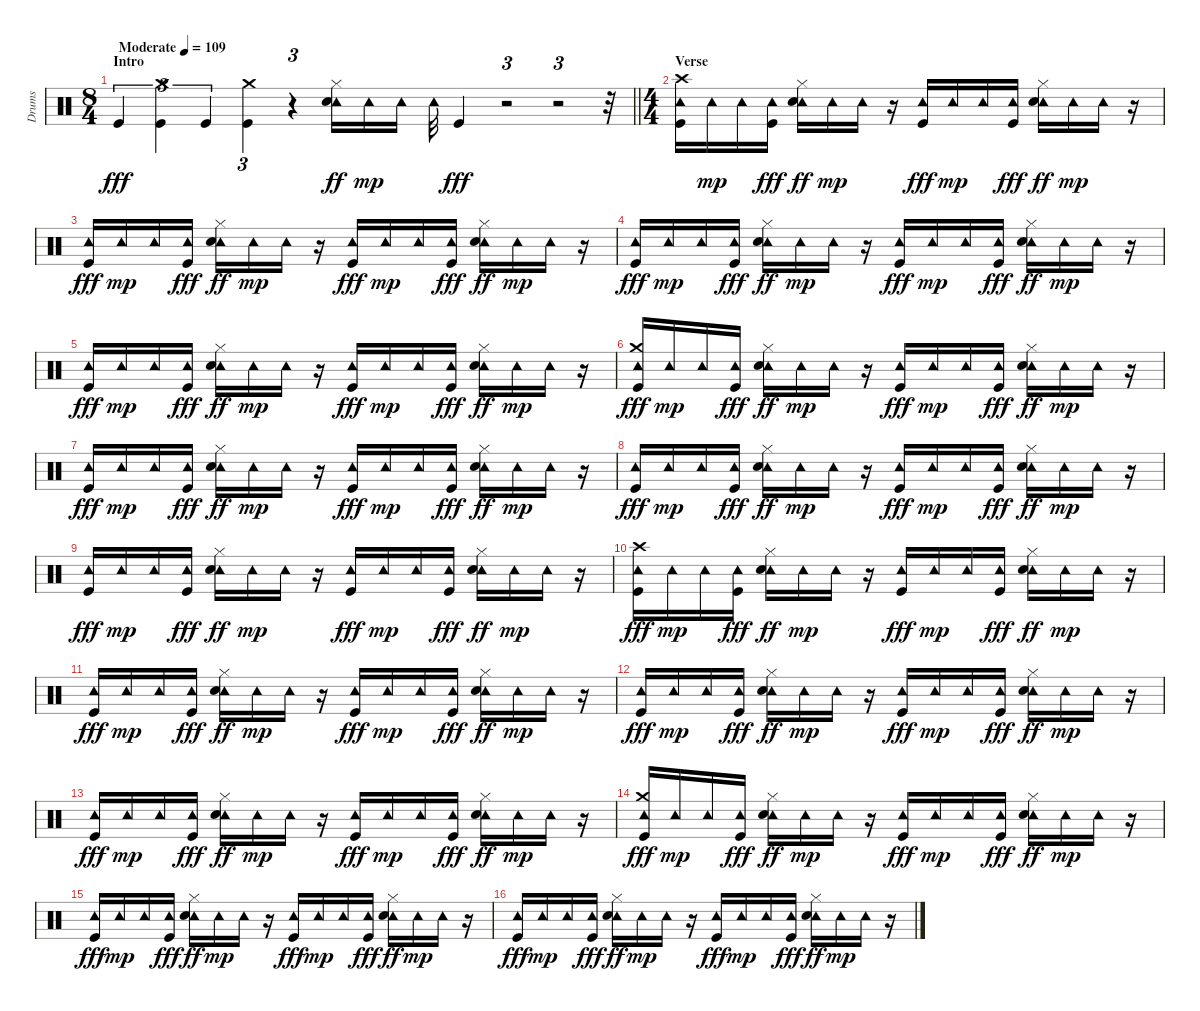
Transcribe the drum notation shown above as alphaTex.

\track ("Drums" "Drums") {instrument percussion}
\staff {score}
\articulation defaults
\ts (8 4)
\section ("" "Intro")
\tempo (109 "Moderate")
\clef neutral
\barLineRight lightlight
\ks c "Kick (hit)".4{tu (3 2) dy fff}
("Crash medium (hit)" "Kick (hit)").4{tu (3 2)} "Kick (hit)".4{tu (3 2)} ("Crash medium (hit)" "Kick (hit)").4{tu (3 2)} r.4{tu (3 2)} ("Tambourine (hit)" "Hi-Hat (closed)" "Electric Snare (hit)").16{dy ff} "Tambourine (hit)".16{dy mp} "Tambourine (hit)".16 "Tambourine (hit)".32 "Kick (hit)".4{dy fff} r.2{tu (3 2)} r.2{tu (3 2)} r.32 |
\ts (4 4)
\section ("" "Verse")
("Crash high (hit)" "Tambourine (hit)" "Kick (hit)").16 "Tambourine (hit)".16{dy mp} "Tambourine (hit)".16 ("Tambourine (hit)" "Kick (hit)").16{dy fff} ("Tambourine (hit)" "Hi-Hat (closed)" "Electric Snare (hit)").16{dy ff} "Tambourine (hit)".16{dy mp} "Tambourine (hit)".16 r.16 ("Tambourine (hit)" "Kick (hit)").16{dy fff} "Tambourine (hit)".16{dy mp} "Tambourine (hit)".16 ("Tambourine (hit)" "Kick (hit)").16{dy fff} ("Tambourine (hit)" "Hi-Hat (closed)" "Electric Snare (hit)").16{dy ff} "Tambourine (hit)".16{dy mp} "Tambourine (hit)".16 r.16 |
("Tambourine (hit)" "Kick (hit)").16{dy fff} "Tambourine (hit)".16{dy mp} "Tambourine (hit)".16 ("Tambourine (hit)" "Kick (hit)").16{dy fff} ("Tambourine (hit)" "Hi-Hat (closed)" "Electric Snare (hit)").16{dy ff} "Tambourine (hit)".16{dy mp} "Tambourine (hit)".16 r.16 ("Tambourine (hit)" "Kick (hit)").16{dy fff} "Tambourine (hit)".16{dy mp} "Tambourine (hit)".16 ("Tambourine (hit)" "Kick (hit)").16{dy fff} ("Tambourine (hit)" "Hi-Hat (closed)" "Electric Snare (hit)").16{dy ff} "Tambourine (hit)".16{dy mp} "Tambourine (hit)".16 r.16 |
("Tambourine (hit)" "Kick (hit)").16{dy fff} "Tambourine (hit)".16{dy mp} "Tambourine (hit)".16 ("Tambourine (hit)" "Kick (hit)").16{dy fff} ("Tambourine (hit)" "Hi-Hat (closed)" "Electric Snare (hit)").16{dy ff} "Tambourine (hit)".16{dy mp} "Tambourine (hit)".16 r.16 ("Tambourine (hit)" "Kick (hit)").16{dy fff} "Tambourine (hit)".16{dy mp} "Tambourine (hit)".16 ("Tambourine (hit)" "Kick (hit)").16{dy fff} ("Tambourine (hit)" "Hi-Hat (closed)" "Electric Snare (hit)").16{dy ff} "Tambourine (hit)".16{dy mp} "Tambourine (hit)".16 r.16 |
("Tambourine (hit)" "Kick (hit)").16{dy fff} "Tambourine (hit)".16{dy mp} "Tambourine (hit)".16 ("Tambourine (hit)" "Kick (hit)").16{dy fff} ("Tambourine (hit)" "Hi-Hat (closed)" "Electric Snare (hit)").16{dy ff} "Tambourine (hit)".16{dy mp} "Tambourine (hit)".16 r.16 ("Tambourine (hit)" "Kick (hit)").16{dy fff} "Tambourine (hit)".16{dy mp} "Tambourine (hit)".16 ("Tambourine (hit)" "Kick (hit)").16{dy fff} ("Tambourine (hit)" "Hi-Hat (closed)" "Electric Snare (hit)").16{dy ff} "Tambourine (hit)".16{dy mp} "Tambourine (hit)".16 r.16 |
("Crash medium (hit)" "Tambourine (hit)" "Kick (hit)").16{dy fff} "Tambourine (hit)".16{dy mp} "Tambourine (hit)".16 ("Tambourine (hit)" "Kick (hit)").16{dy fff} ("Tambourine (hit)" "Hi-Hat (closed)" "Electric Snare (hit)").16{dy ff} "Tambourine (hit)".16{dy mp} "Tambourine (hit)".16 r.16 ("Tambourine (hit)" "Kick (hit)").16{dy fff} "Tambourine (hit)".16{dy mp} "Tambourine (hit)".16 ("Tambourine (hit)" "Kick (hit)").16{dy fff} ("Tambourine (hit)" "Hi-Hat (closed)" "Electric Snare (hit)").16{dy ff} "Tambourine (hit)".16{dy mp} "Tambourine (hit)".16 r.16 |
("Tambourine (hit)" "Kick (hit)").16{dy fff} "Tambourine (hit)".16{dy mp} "Tambourine (hit)".16 ("Tambourine (hit)" "Kick (hit)").16{dy fff} ("Tambourine (hit)" "Hi-Hat (closed)" "Electric Snare (hit)").16{dy ff} "Tambourine (hit)".16{dy mp} "Tambourine (hit)".16 r.16 ("Tambourine (hit)" "Kick (hit)").16{dy fff} "Tambourine (hit)".16{dy mp} "Tambourine (hit)".16 ("Tambourine (hit)" "Kick (hit)").16{dy fff} ("Tambourine (hit)" "Hi-Hat (closed)" "Electric Snare (hit)").16{dy ff} "Tambourine (hit)".16{dy mp} "Tambourine (hit)".16 r.16 |
("Tambourine (hit)" "Kick (hit)").16{dy fff} "Tambourine (hit)".16{dy mp} "Tambourine (hit)".16 ("Tambourine (hit)" "Kick (hit)").16{dy fff} ("Tambourine (hit)" "Hi-Hat (closed)" "Electric Snare (hit)").16{dy ff} "Tambourine (hit)".16{dy mp} "Tambourine (hit)".16 r.16 ("Tambourine (hit)" "Kick (hit)").16{dy fff} "Tambourine (hit)".16{dy mp} "Tambourine (hit)".16 ("Tambourine (hit)" "Kick (hit)").16{dy fff} ("Tambourine (hit)" "Hi-Hat (closed)" "Electric Snare (hit)").16{dy ff} "Tambourine (hit)".16{dy mp} "Tambourine (hit)".16 r.16 |
("Tambourine (hit)" "Kick (hit)").16{dy fff} "Tambourine (hit)".16{dy mp} "Tambourine (hit)".16 ("Tambourine (hit)" "Kick (hit)").16{dy fff} ("Tambourine (hit)" "Hi-Hat (closed)" "Electric Snare (hit)").16{dy ff} "Tambourine (hit)".16{dy mp} "Tambourine (hit)".16 r.16 ("Tambourine (hit)" "Kick (hit)").16{dy fff} "Tambourine (hit)".16{dy mp} "Tambourine (hit)".16 ("Tambourine (hit)" "Kick (hit)").16{dy fff} ("Tambourine (hit)" "Hi-Hat (closed)" "Electric Snare (hit)").16{dy ff} "Tambourine (hit)".16{dy mp} "Tambourine (hit)".16 r.16 |
("Crash high (hit)" "Tambourine (hit)" "Kick (hit)").16{dy fff} "Tambourine (hit)".16{dy mp} "Tambourine (hit)".16 ("Tambourine (hit)" "Kick (hit)").16{dy fff} ("Tambourine (hit)" "Hi-Hat (closed)" "Electric Snare (hit)").16{dy ff} "Tambourine (hit)".16{dy mp} "Tambourine (hit)".16 r.16 ("Tambourine (hit)" "Kick (hit)").16{dy fff} "Tambourine (hit)".16{dy mp} "Tambourine (hit)".16 ("Tambourine (hit)" "Kick (hit)").16{dy fff} ("Tambourine (hit)" "Hi-Hat (closed)" "Electric Snare (hit)").16{dy ff} "Tambourine (hit)".16{dy mp} "Tambourine (hit)".16 r.16 |
("Tambourine (hit)" "Kick (hit)").16{dy fff} "Tambourine (hit)".16{dy mp} "Tambourine (hit)".16 ("Tambourine (hit)" "Kick (hit)").16{dy fff} ("Tambourine (hit)" "Hi-Hat (closed)" "Electric Snare (hit)").16{dy ff} "Tambourine (hit)".16{dy mp} "Tambourine (hit)".16 r.16 ("Tambourine (hit)" "Kick (hit)").16{dy fff} "Tambourine (hit)".16{dy mp} "Tambourine (hit)".16 ("Tambourine (hit)" "Kick (hit)").16{dy fff} ("Tambourine (hit)" "Hi-Hat (closed)" "Electric Snare (hit)").16{dy ff} "Tambourine (hit)".16{dy mp} "Tambourine (hit)".16 r.16 |
("Tambourine (hit)" "Kick (hit)").16{dy fff} "Tambourine (hit)".16{dy mp} "Tambourine (hit)".16 ("Tambourine (hit)" "Kick (hit)").16{dy fff} ("Tambourine (hit)" "Hi-Hat (closed)" "Electric Snare (hit)").16{dy ff} "Tambourine (hit)".16{dy mp} "Tambourine (hit)".16 r.16 ("Tambourine (hit)" "Kick (hit)").16{dy fff} "Tambourine (hit)".16{dy mp} "Tambourine (hit)".16 ("Tambourine (hit)" "Kick (hit)").16{dy fff} ("Tambourine (hit)" "Hi-Hat (closed)" "Electric Snare (hit)").16{dy ff} "Tambourine (hit)".16{dy mp} "Tambourine (hit)".16 r.16 |
("Tambourine (hit)" "Kick (hit)").16{dy fff} "Tambourine (hit)".16{dy mp} "Tambourine (hit)".16 ("Tambourine (hit)" "Kick (hit)").16{dy fff} ("Tambourine (hit)" "Hi-Hat (closed)" "Electric Snare (hit)").16{dy ff} "Tambourine (hit)".16{dy mp} "Tambourine (hit)".16 r.16 ("Tambourine (hit)" "Kick (hit)").16{dy fff} "Tambourine (hit)".16{dy mp} "Tambourine (hit)".16 ("Tambourine (hit)" "Kick (hit)").16{dy fff} ("Tambourine (hit)" "Hi-Hat (closed)" "Electric Snare (hit)").16{dy ff} "Tambourine (hit)".16{dy mp} "Tambourine (hit)".16 r.16 |
("Crash medium (hit)" "Tambourine (hit)" "Kick (hit)").16{dy fff} "Tambourine (hit)".16{dy mp} "Tambourine (hit)".16 ("Tambourine (hit)" "Kick (hit)").16{dy fff} ("Tambourine (hit)" "Hi-Hat (closed)" "Electric Snare (hit)").16{dy ff} "Tambourine (hit)".16{dy mp} "Tambourine (hit)".16 r.16 ("Tambourine (hit)" "Kick (hit)").16{dy fff} "Tambourine (hit)".16{dy mp} "Tambourine (hit)".16 ("Tambourine (hit)" "Kick (hit)").16{dy fff} ("Tambourine (hit)" "Hi-Hat (closed)" "Electric Snare (hit)").16{dy ff} "Tambourine (hit)".16{dy mp} "Tambourine (hit)".16 r.16 |
("Tambourine (hit)" "Kick (hit)").16{dy fff} "Tambourine (hit)".16{dy mp} "Tambourine (hit)".16 ("Tambourine (hit)" "Kick (hit)").16{dy fff} ("Tambourine (hit)" "Hi-Hat (closed)" "Electric Snare (hit)").16{dy ff} "Tambourine (hit)".16{dy mp} "Tambourine (hit)".16 r.16 ("Tambourine (hit)" "Kick (hit)").16{dy fff} "Tambourine (hit)".16{dy mp} "Tambourine (hit)".16 ("Tambourine (hit)" "Kick (hit)").16{dy fff} ("Tambourine (hit)" "Hi-Hat (closed)" "Electric Snare (hit)").16{dy ff} "Tambourine (hit)".16{dy mp} "Tambourine (hit)".16 r.16 |
("Tambourine (hit)" "Kick (hit)").16{dy fff} "Tambourine (hit)".16{dy mp} "Tambourine (hit)".16 ("Tambourine (hit)" "Kick (hit)").16{dy fff} ("Tambourine (hit)" "Hi-Hat (closed)" "Electric Snare (hit)").16{dy ff} "Tambourine (hit)".16{dy mp} "Tambourine (hit)".16 r.16 ("Tambourine (hit)" "Kick (hit)").16{dy fff} "Tambourine (hit)".16{dy mp} "Tambourine (hit)".16 ("Tambourine (hit)" "Kick (hit)").16{dy fff} ("Tambourine (hit)" "Hi-Hat (closed)" "Electric Snare (hit)").16{dy ff} "Tambourine (hit)".16{dy mp} "Tambourine (hit)".16 r.16
